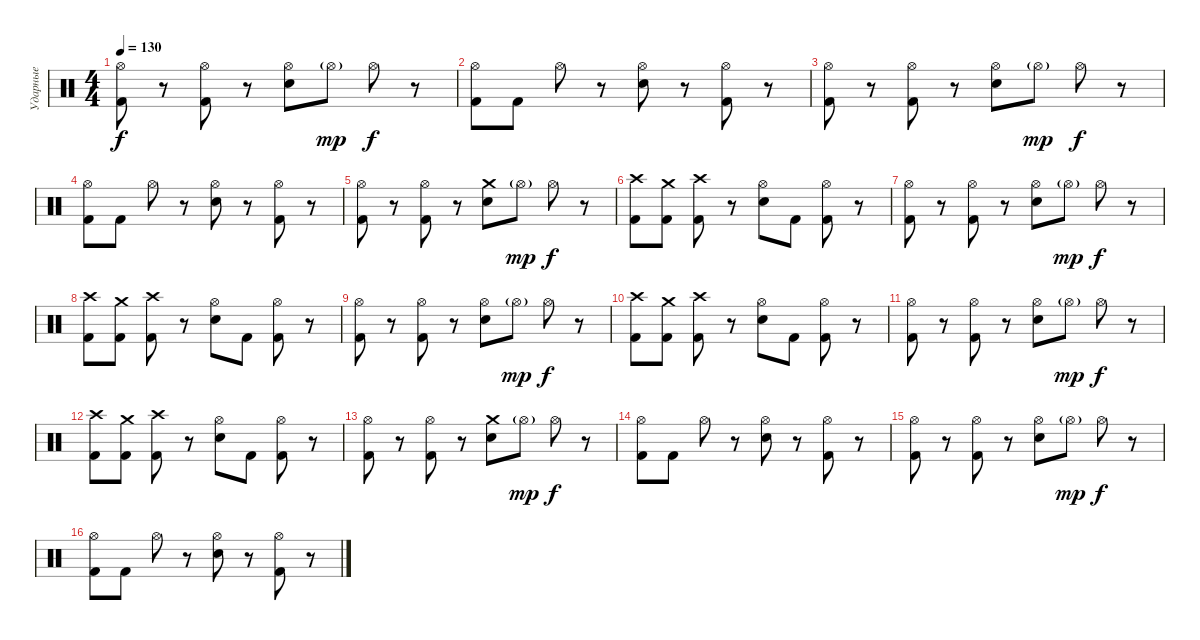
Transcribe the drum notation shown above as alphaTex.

\track ("Ударные" "Ударные") {instrument percussion}
\staff {score}
\articulation defaults
\ts (4 4)
\tempo 130
\clef neutral
\ks c
("Hi-Hat (open)" "Kick (hit) 2").8{dy f} r.8 ("Hi-Hat (open)" "Kick (hit) 2").8 r.8 ("Hi-Hat (open)" "Snare (hit) 2").8 "Hi-Hat (open)"{g}.8{dy mp} "Hi-Hat (open)".8{dy f} r.8 |
("Hi-Hat (open)" "Kick (hit) 2").8 "Kick (hit) 2".8 "Hi-Hat (open)".8 r.8 ("Hi-Hat (open)" "Snare (hit) 2").8 r.8 ("Hi-Hat (open)" "Kick (hit) 2").8 r.8 |
("Hi-Hat (open)" "Kick (hit) 2").8 r.8 ("Hi-Hat (open)" "Kick (hit) 2").8 r.8 ("Hi-Hat (open)" "Snare (hit) 2").8 "Hi-Hat (open)"{g}.8{dy mp} "Hi-Hat (open)".8{dy f} r.8 |
("Hi-Hat (open)" "Kick (hit) 2").8 "Kick (hit) 2".8 "Hi-Hat (open)".8 r.8 ("Hi-Hat (open)" "Snare (hit) 2").8 r.8 ("Hi-Hat (open)" "Kick (hit) 2").8 r.8 |
("Hi-Hat (open)" "Kick (hit) 2").8 r.8 ("Hi-Hat (open)" "Kick (hit) 2").8 r.8 ("Crash medium (hit)" "Snare (hit) 2").8 "Hi-Hat (open)"{g}.8{dy mp} "Hi-Hat (open)".8{dy f} r.8 |
("Crash high (hit)" "Kick (hit) 2").8 ("Crash medium (hit)" "Kick (hit) 2").8 ("Crash high (hit)" "Kick (hit) 2").8 r.8 ("Hi-Hat (open)" "Snare (hit) 2").8 "Kick (hit) 2".8 ("Hi-Hat (open)" "Kick (hit) 2").8 r.8 |
("Hi-Hat (open)" "Kick (hit) 2").8 r.8 ("Hi-Hat (open)" "Kick (hit) 2").8 r.8 ("Hi-Hat (open)" "Snare (hit) 2").8 "Hi-Hat (open)"{g}.8{dy mp} "Hi-Hat (open)".8{dy f} r.8 |
("Crash high (hit)" "Kick (hit) 2").8 ("Crash medium (hit)" "Kick (hit) 2").8 ("Crash high (hit)" "Kick (hit) 2").8 r.8 ("Hi-Hat (open)" "Snare (hit) 2").8 "Kick (hit) 2".8 ("Hi-Hat (open)" "Kick (hit) 2").8 r.8 |
("Hi-Hat (open)" "Kick (hit) 2").8 r.8 ("Hi-Hat (open)" "Kick (hit) 2").8 r.8 ("Hi-Hat (open)" "Snare (hit) 2").8 "Hi-Hat (open)"{g}.8{dy mp} "Hi-Hat (open)".8{dy f} r.8 |
("Crash high (hit)" "Kick (hit) 2").8 ("Crash medium (hit)" "Kick (hit) 2").8 ("Crash high (hit)" "Kick (hit) 2").8 r.8 ("Hi-Hat (open)" "Snare (hit) 2").8 "Kick (hit) 2".8 ("Hi-Hat (open)" "Kick (hit) 2").8 r.8 |
("Hi-Hat (open)" "Kick (hit) 2").8 r.8 ("Hi-Hat (open)" "Kick (hit) 2").8 r.8 ("Hi-Hat (open)" "Snare (hit) 2").8 "Hi-Hat (open)"{g}.8{dy mp} "Hi-Hat (open)".8{dy f} r.8 |
("Crash high (hit)" "Kick (hit) 2").8 ("Crash medium (hit)" "Kick (hit) 2").8 ("Crash high (hit)" "Kick (hit) 2").8 r.8 ("Hi-Hat (open)" "Snare (hit) 2").8 "Kick (hit) 2".8 ("Hi-Hat (open)" "Kick (hit) 2").8 r.8 |
("Hi-Hat (open)" "Kick (hit) 2").8 r.8 ("Hi-Hat (open)" "Kick (hit) 2").8 r.8 ("Snare (hit) 2" "Crash medium (hit)").8 "Hi-Hat (open)"{g}.8{dy mp} "Hi-Hat (open)".8{dy f} r.8 |
("Hi-Hat (open)" "Kick (hit) 2").8 "Kick (hit) 2".8 "Hi-Hat (open)".8 r.8 ("Hi-Hat (open)" "Snare (hit) 2").8 r.8 ("Hi-Hat (open)" "Kick (hit) 2").8 r.8 |
("Hi-Hat (open)" "Kick (hit) 2").8 r.8 ("Hi-Hat (open)" "Kick (hit) 2").8 r.8 ("Hi-Hat (open)" "Snare (hit) 2").8 "Hi-Hat (open)"{g}.8{dy mp} "Hi-Hat (open)".8{dy f} r.8 |
("Hi-Hat (open)" "Kick (hit) 2").8 "Kick (hit) 2".8 "Hi-Hat (open)".8 r.8 ("Hi-Hat (open)" "Snare (hit) 2").8 r.8 ("Hi-Hat (open)" "Kick (hit) 2").8 r.8
